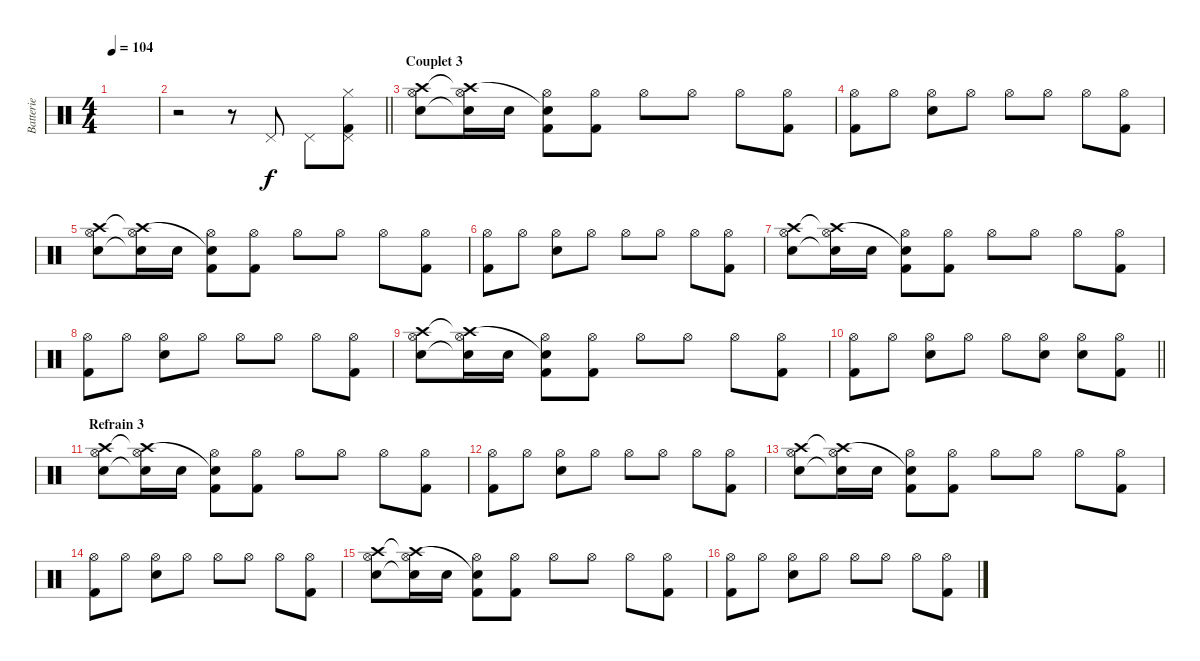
\track ("Batterie" "Batterie") {instrument percussion}
\staff {score}
\articulation defaults
\ts (4 4)
\tempo 104
\clef neutral
\ks c
|
\barLineRight lightlight
r.2 r.8 "Pedal Hi-Hat (hit)".8 "Pedal Hi-Hat (hit)".8 ("Kick (hit) 2" "Hi-Hat (closed)" "Pedal Hi-Hat (hit)").8 |
\section ("" "Couplet 3")
("Hi-Hat (open)" "Crash high (hit)" "Electric Snare (hit)").8 ("Hi-Hat (open)" "Crash high (hit)"{t} "Electric Snare (hit)"{t}).16 "Electric Snare (hit)".16 ("Hi-Hat (open)" "Snare (hit) 2"{t} "Kick (hit) 2").8 ("Hi-Hat (open)" "Kick (hit) 2").8 "Hi-Hat (open)".8 "Hi-Hat (open)".8 "Hi-Hat (open)".8 ("Hi-Hat (open)" "Kick (hit) 2").8 |
("Hi-Hat (open)" "Kick (hit) 2").8 "Hi-Hat (open)".8 ("Hi-Hat (open)" "Electric Snare (hit)").8 "Hi-Hat (open)".8 "Hi-Hat (open)".8 "Hi-Hat (open)".8 "Hi-Hat (open)".8 ("Hi-Hat (open)" "Kick (hit) 2").8 |
("Hi-Hat (open)" "Crash high (hit)" "Electric Snare (hit)").8 ("Hi-Hat (open)" "Crash high (hit)"{t} "Electric Snare (hit)"{t}).16 "Electric Snare (hit)".16 ("Hi-Hat (open)" "Snare (hit) 2"{t} "Kick (hit) 2").8 ("Hi-Hat (open)" "Kick (hit) 2").8 "Hi-Hat (open)".8 "Hi-Hat (open)".8 "Hi-Hat (open)".8 ("Hi-Hat (open)" "Kick (hit) 2").8 |
("Hi-Hat (open)" "Kick (hit) 2").8 "Hi-Hat (open)".8 ("Hi-Hat (open)" "Electric Snare (hit)").8 "Hi-Hat (open)".8 "Hi-Hat (open)".8 "Hi-Hat (open)".8 "Hi-Hat (open)".8 ("Hi-Hat (open)" "Kick (hit) 2").8 |
("Hi-Hat (open)" "Crash high (hit)" "Electric Snare (hit)").8 ("Hi-Hat (open)" "Crash high (hit)"{t} "Electric Snare (hit)"{t}).16 "Electric Snare (hit)".16 ("Hi-Hat (open)" "Snare (hit) 2"{t} "Kick (hit) 2").8 ("Hi-Hat (open)" "Kick (hit) 2").8 "Hi-Hat (open)".8 "Hi-Hat (open)".8 "Hi-Hat (open)".8 ("Hi-Hat (open)" "Kick (hit) 2").8 |
("Hi-Hat (open)" "Kick (hit) 2").8 "Hi-Hat (open)".8 ("Hi-Hat (open)" "Electric Snare (hit)").8 "Hi-Hat (open)".8 "Hi-Hat (open)".8 "Hi-Hat (open)".8 "Hi-Hat (open)".8 ("Hi-Hat (open)" "Kick (hit) 2").8 |
("Hi-Hat (open)" "Crash high (hit)" "Electric Snare (hit)").8 ("Hi-Hat (open)" "Crash high (hit)"{t} "Electric Snare (hit)"{t}).16 "Electric Snare (hit)".16 ("Hi-Hat (open)" "Snare (hit) 2"{t} "Kick (hit) 2").8 ("Hi-Hat (open)" "Kick (hit) 2").8 "Hi-Hat (open)".8 "Hi-Hat (open)".8 "Hi-Hat (open)".8 ("Hi-Hat (open)" "Kick (hit) 2").8 |
\barLineRight lightlight
("Hi-Hat (open)" "Kick (hit) 2").8 "Hi-Hat (open)".8 ("Hi-Hat (open)" "Electric Snare (hit)").8 "Hi-Hat (open)".8 "Hi-Hat (open)".8 ("Hi-Hat (open)" "Electric Snare (hit)").8 ("Hi-Hat (open)" "Electric Snare (hit)").8 ("Hi-Hat (open)" "Kick (hit) 2").8 |
\section ("" "Refrain 3")
("Hi-Hat (open)" "Crash high (hit)" "Electric Snare (hit)").8 ("Hi-Hat (open)" "Crash high (hit)"{t} "Electric Snare (hit)"{t}).16 "Electric Snare (hit)".16 ("Hi-Hat (open)" "Snare (hit) 2"{t} "Kick (hit) 2").8 ("Hi-Hat (open)" "Kick (hit) 2").8 "Hi-Hat (open)".8 "Hi-Hat (open)".8 "Hi-Hat (open)".8 ("Hi-Hat (open)" "Kick (hit) 2").8 |
("Hi-Hat (open)" "Kick (hit) 2").8 "Hi-Hat (open)".8 ("Hi-Hat (open)" "Electric Snare (hit)").8 "Hi-Hat (open)".8 "Hi-Hat (open)".8 "Hi-Hat (open)".8 "Hi-Hat (open)".8 ("Hi-Hat (open)" "Kick (hit) 2").8 |
("Hi-Hat (open)" "Crash high (hit)" "Electric Snare (hit)").8 ("Hi-Hat (open)" "Crash high (hit)"{t} "Electric Snare (hit)"{t}).16 "Electric Snare (hit)".16 ("Hi-Hat (open)" "Snare (hit) 2"{t} "Kick (hit) 2").8 ("Hi-Hat (open)" "Kick (hit) 2").8 "Hi-Hat (open)".8 "Hi-Hat (open)".8 "Hi-Hat (open)".8 ("Hi-Hat (open)" "Kick (hit) 2").8 |
("Hi-Hat (open)" "Kick (hit) 2").8 "Hi-Hat (open)".8 ("Hi-Hat (open)" "Electric Snare (hit)").8 "Hi-Hat (open)".8 "Hi-Hat (open)".8 "Hi-Hat (open)".8 "Hi-Hat (open)".8 ("Hi-Hat (open)" "Kick (hit) 2").8 |
("Hi-Hat (open)" "Crash high (hit)" "Electric Snare (hit)").8 ("Hi-Hat (open)" "Crash high (hit)"{t} "Electric Snare (hit)"{t}).16 "Electric Snare (hit)".16 ("Hi-Hat (open)" "Snare (hit) 2"{t} "Kick (hit) 2").8 ("Hi-Hat (open)" "Kick (hit) 2").8 "Hi-Hat (open)".8 "Hi-Hat (open)".8 "Hi-Hat (open)".8 ("Hi-Hat (open)" "Kick (hit) 2").8 |
("Hi-Hat (open)" "Kick (hit) 2").8 "Hi-Hat (open)".8 ("Hi-Hat (open)" "Electric Snare (hit)").8 "Hi-Hat (open)".8 "Hi-Hat (open)".8 "Hi-Hat (open)".8 "Hi-Hat (open)".8 ("Hi-Hat (open)" "Kick (hit) 2").8
